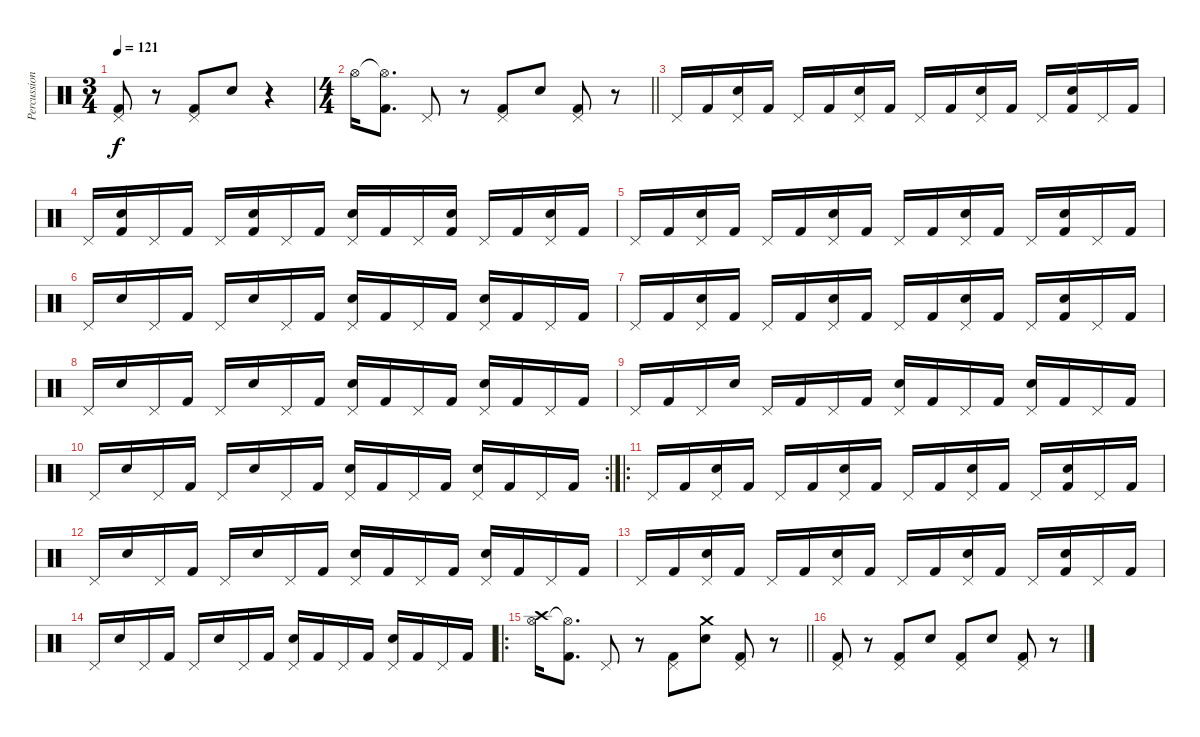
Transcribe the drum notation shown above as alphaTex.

\track ("Percussion" "Percussion") {instrument percussion}
\staff {score}
\articulation defaults
\ts (3 4)
\tempo 121
\clef neutral
\ks c
("Pedal Hi-Hat (hit)" "Kick (hit) 2").8{dy f} r.8 ("Pedal Hi-Hat (hit)" "Kick (hit) 2").8 "Electric Snare (hit)".8 r.4 |
\ts (4 4)
\barLineRight lightlight "Hi-Hat (open)".16
("Hi-Hat (open)"{t} "Kick (hit) 2").8{d} "Pedal Hi-Hat (hit)".8 r.8 ("Pedal Hi-Hat (hit)" "Kick (hit) 2").8 "Electric Snare (hit)".8 ("Pedal Hi-Hat (hit)" "Kick (hit) 2").8 r.8 |
"Pedal Hi-Hat (hit)".16 "Kick (hit) 2".16 ("Pedal Hi-Hat (hit)" "Electric Snare (hit)").16 "Kick (hit) 2".16 "Pedal Hi-Hat (hit)".16 "Kick (hit) 2".16 ("Pedal Hi-Hat (hit)" "Electric Snare (hit)").16 "Kick (hit) 2".16 "Pedal Hi-Hat (hit)".16 "Kick (hit) 2".16 ("Pedal Hi-Hat (hit)" "Electric Snare (hit)").16 "Kick (hit) 2".16 "Pedal Hi-Hat (hit)".16 ("Electric Snare (hit)" "Kick (hit) 2").16 "Pedal Hi-Hat (hit)".16 "Kick (hit) 2".16 |
"Pedal Hi-Hat (hit)".16 ("Electric Snare (hit)" "Kick (hit) 2").16 "Pedal Hi-Hat (hit)".16 "Kick (hit) 2".16 "Pedal Hi-Hat (hit)".16 ("Electric Snare (hit)" "Kick (hit) 2").16 "Pedal Hi-Hat (hit)".16 "Kick (hit) 2".16 ("Pedal Hi-Hat (hit)" "Electric Snare (hit)").16 "Kick (hit) 2".16 "Pedal Hi-Hat (hit)".16 ("Electric Snare (hit)" "Kick (hit) 2").16 "Pedal Hi-Hat (hit)".16 "Kick (hit) 2".16 ("Pedal Hi-Hat (hit)" "Electric Snare (hit)").16 "Kick (hit) 2".16 |
"Pedal Hi-Hat (hit)".16 "Kick (hit) 2".16 ("Pedal Hi-Hat (hit)" "Electric Snare (hit)").16 "Kick (hit) 2".16 "Pedal Hi-Hat (hit)".16 "Kick (hit) 2".16 ("Pedal Hi-Hat (hit)" "Electric Snare (hit)").16 "Kick (hit) 2".16 "Pedal Hi-Hat (hit)".16 "Kick (hit) 2".16 ("Pedal Hi-Hat (hit)" "Electric Snare (hit)").16 "Kick (hit) 2".16 "Pedal Hi-Hat (hit)".16 ("Electric Snare (hit)" "Kick (hit) 2").16 "Pedal Hi-Hat (hit)".16 "Kick (hit) 2".16 |
"Pedal Hi-Hat (hit)".16 "Electric Snare (hit)".16 "Pedal Hi-Hat (hit)".16 "Kick (hit) 2".16 "Pedal Hi-Hat (hit)".16 "Electric Snare (hit)".16 "Pedal Hi-Hat (hit)".16 "Kick (hit) 2".16 ("Pedal Hi-Hat (hit)" "Electric Snare (hit)").16 "Kick (hit) 2".16 "Pedal Hi-Hat (hit)".16 "Kick (hit) 2".16 ("Pedal Hi-Hat (hit)" "Electric Snare (hit)").16 "Kick (hit) 2".16 "Pedal Hi-Hat (hit)".16 "Kick (hit) 2".16 |
"Pedal Hi-Hat (hit)".16 "Kick (hit) 2".16 ("Pedal Hi-Hat (hit)" "Electric Snare (hit)").16 "Kick (hit) 2".16 "Pedal Hi-Hat (hit)".16 "Kick (hit) 2".16 ("Pedal Hi-Hat (hit)" "Electric Snare (hit)").16 "Kick (hit) 2".16 "Pedal Hi-Hat (hit)".16 "Kick (hit) 2".16 ("Pedal Hi-Hat (hit)" "Electric Snare (hit)").16 "Kick (hit) 2".16 "Pedal Hi-Hat (hit)".16 ("Electric Snare (hit)" "Kick (hit) 2").16 "Pedal Hi-Hat (hit)".16 "Kick (hit) 2".16 |
"Pedal Hi-Hat (hit)".16 "Electric Snare (hit)".16 "Pedal Hi-Hat (hit)".16 "Kick (hit) 2".16 "Pedal Hi-Hat (hit)".16 "Electric Snare (hit)".16 "Pedal Hi-Hat (hit)".16 "Kick (hit) 2".16 ("Pedal Hi-Hat (hit)" "Electric Snare (hit)").16 "Kick (hit) 2".16 "Pedal Hi-Hat (hit)".16 "Kick (hit) 2".16 ("Pedal Hi-Hat (hit)" "Electric Snare (hit)").16 "Kick (hit) 2".16 "Pedal Hi-Hat (hit)".16 "Kick (hit) 2".16 |
"Pedal Hi-Hat (hit)".16 "Kick (hit) 2".16 "Pedal Hi-Hat (hit)".16 "Electric Snare (hit)".16 "Pedal Hi-Hat (hit)".16 "Kick (hit) 2".16 "Pedal Hi-Hat (hit)".16 "Kick (hit) 2".16 ("Pedal Hi-Hat (hit)" "Electric Snare (hit)").16 "Kick (hit) 2".16 "Pedal Hi-Hat (hit)".16 "Kick (hit) 2".16 ("Pedal Hi-Hat (hit)" "Electric Snare (hit)").16 "Kick (hit) 2".16 "Pedal Hi-Hat (hit)".16 "Kick (hit) 2".16 |
\rc 2 "Pedal Hi-Hat (hit)".16 "Electric Snare (hit)".16 "Pedal Hi-Hat (hit)".16 "Kick (hit) 2".16 "Pedal Hi-Hat (hit)".16 "Electric Snare (hit)".16 "Pedal Hi-Hat (hit)".16 "Kick (hit) 2".16
("Pedal Hi-Hat (hit)" "Electric Snare (hit)").16 "Kick (hit) 2".16 "Pedal Hi-Hat (hit)".16 "Kick (hit) 2".16 ("Pedal Hi-Hat (hit)" "Electric Snare (hit)").16 "Kick (hit) 2".16 "Pedal Hi-Hat (hit)".16 "Kick (hit) 2".16 |
\ro "Pedal Hi-Hat (hit)".16 "Kick (hit) 2".16
("Pedal Hi-Hat (hit)" "Electric Snare (hit)").16 "Kick (hit) 2".16 "Pedal Hi-Hat (hit)".16 "Kick (hit) 2".16 ("Pedal Hi-Hat (hit)" "Electric Snare (hit)").16 "Kick (hit) 2".16 "Pedal Hi-Hat (hit)".16 "Kick (hit) 2".16 ("Pedal Hi-Hat (hit)" "Electric Snare (hit)").16 "Kick (hit) 2".16 "Pedal Hi-Hat (hit)".16 ("Electric Snare (hit)" "Kick (hit) 2").16 "Pedal Hi-Hat (hit)".16 "Kick (hit) 2".16 |
"Pedal Hi-Hat (hit)".16 "Electric Snare (hit)".16 "Pedal Hi-Hat (hit)".16 "Kick (hit) 2".16 "Pedal Hi-Hat (hit)".16 "Electric Snare (hit)".16 "Pedal Hi-Hat (hit)".16 "Kick (hit) 2".16 ("Pedal Hi-Hat (hit)" "Electric Snare (hit)").16 "Kick (hit) 2".16 "Pedal Hi-Hat (hit)".16 "Kick (hit) 2".16 ("Pedal Hi-Hat (hit)" "Electric Snare (hit)").16 "Kick (hit) 2".16 "Pedal Hi-Hat (hit)".16 "Kick (hit) 2".16 |
"Pedal Hi-Hat (hit)".16 "Kick (hit) 2".16 ("Pedal Hi-Hat (hit)" "Electric Snare (hit)").16 "Kick (hit) 2".16 "Pedal Hi-Hat (hit)".16 "Kick (hit) 2".16 ("Pedal Hi-Hat (hit)" "Electric Snare (hit)").16 "Kick (hit) 2".16 "Pedal Hi-Hat (hit)".16 "Kick (hit) 2".16 ("Pedal Hi-Hat (hit)" "Electric Snare (hit)").16 "Kick (hit) 2".16 "Pedal Hi-Hat (hit)".16 ("Electric Snare (hit)" "Kick (hit) 2").16 "Pedal Hi-Hat (hit)".16 "Kick (hit) 2".16 |
"Pedal Hi-Hat (hit)".16 "Electric Snare (hit)".16 "Pedal Hi-Hat (hit)".16 "Kick (hit) 2".16 "Pedal Hi-Hat (hit)".16 "Electric Snare (hit)".16 "Pedal Hi-Hat (hit)".16 "Kick (hit) 2".16 ("Pedal Hi-Hat (hit)" "Electric Snare (hit)").16 "Kick (hit) 2".16 "Pedal Hi-Hat (hit)".16 "Kick (hit) 2".16 ("Pedal Hi-Hat (hit)" "Electric Snare (hit)").16 "Kick (hit) 2".16 "Pedal Hi-Hat (hit)".16 "Kick (hit) 2".16 |
\ro
\barLineRight lightlight
("Hi-Hat (open)" "Crash high (hit)").16 ("Hi-Hat (open)"{t} "Kick (hit) 2").8{d} "Pedal Hi-Hat (hit)".8 r.8 ("Pedal Hi-Hat (hit)" "Kick (hit) 2").8 ("Crash medium (hit)" "Electric Snare (hit)").8 ("Pedal Hi-Hat (hit)" "Kick (hit) 2").8 r.8 |
("Pedal Hi-Hat (hit)" "Kick (hit) 2").8 r.8 ("Pedal Hi-Hat (hit)" "Kick (hit) 2").8 "Electric Snare (hit)".8 ("Pedal Hi-Hat (hit)" "Kick (hit) 2").8 "Electric Snare (hit)".8 ("Pedal Hi-Hat (hit)" "Kick (hit) 2").8 r.8
